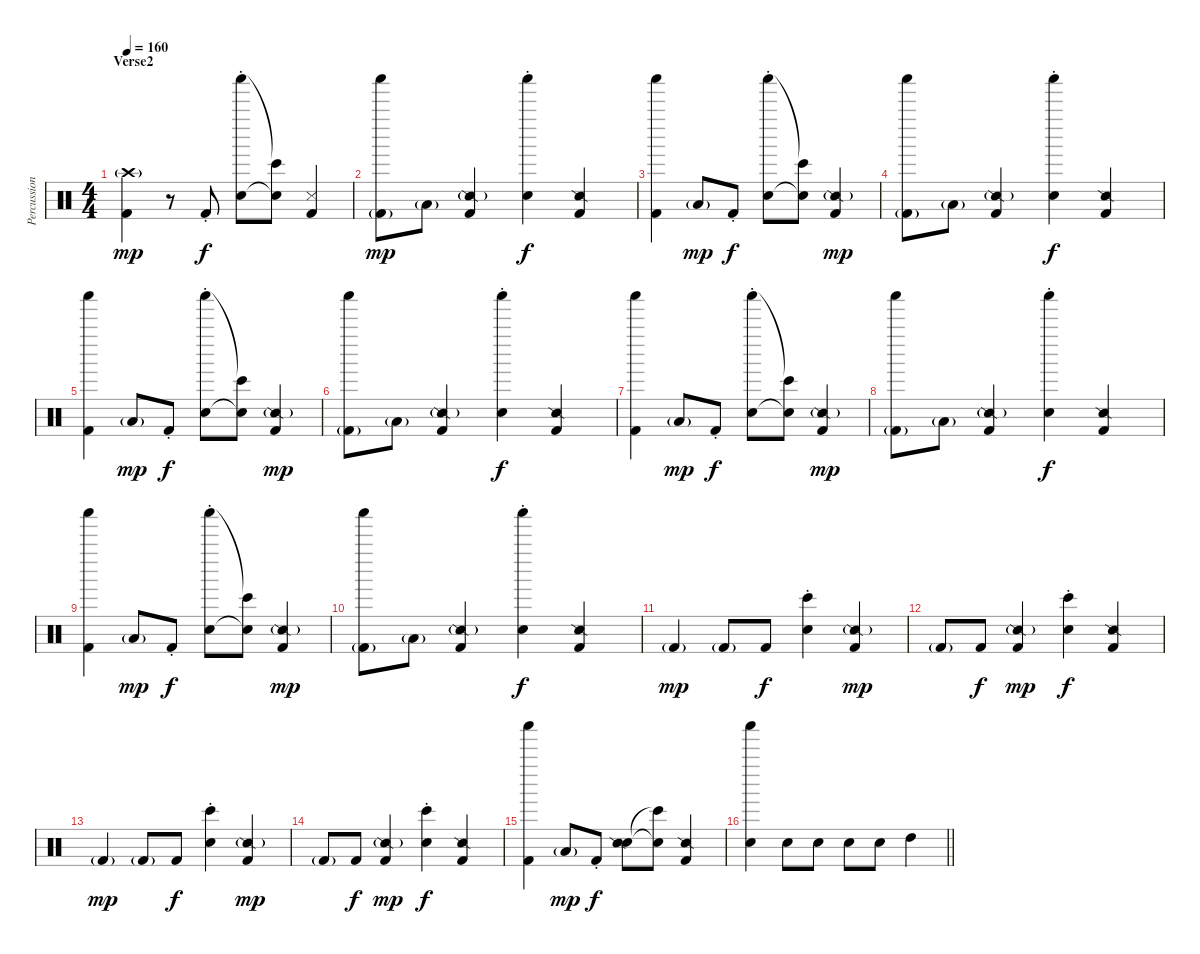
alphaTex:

\track ("Percussion" "Percussion") {instrument percussion}
\staff {score}
\articulation defaults
\ts (4 4)
\section ("" "Verse2")
\tempo 160
\clef neutral
\ks c
("Crash high (hit)"{g} "Kick (hit) 2").4{dy mp} r.8 "Kick (hit) 2"{st}.8{dy f} ("Electric Snare (hit)" "Shaker (hit)"{st}).8 ("Electric Snare (hit)"{t} "Bongo High (hit)"{t}).8 ("Kick (hit) 2" "Snare (side stick) 3").4 |
("Kick (hit) 2"{g} "Shaker (hit)").8{dy mp} "Low Tom (hit)"{g}.8 ("Kick (hit) 2" "Snare (side stick) 2"{g}).4 ("Electric Snare (hit)" "Shaker (hit)"{st}).4{dy f} ("Kick (hit) 2" "Snare (side stick) 2").4 |
("Kick (hit) 2" "Shaker (hit)").4 "Low Tom (hit)"{g}.8{dy mp} "Kick (hit) 2"{st}.8{dy f} ("Electric Snare (hit)" "Shaker (hit)"{st}).8 ("Electric Snare (hit)"{t} "Bongo High (hit)"{t}).8 ("Kick (hit) 2" "Snare (side stick) 2"{g}).4{dy mp} |
("Kick (hit) 2"{g} "Shaker (hit)").8 "Low Tom (hit)"{g}.8 ("Kick (hit) 2" "Snare (side stick) 2"{g}).4 ("Electric Snare (hit)" "Shaker (hit)"{st}).4{dy f} ("Kick (hit) 2" "Snare (side stick) 2").4 |
("Kick (hit) 2" "Shaker (hit)").4 "Low Tom (hit)"{g}.8{dy mp} "Kick (hit) 2"{st}.8{dy f} ("Electric Snare (hit)" "Shaker (hit)"{st}).8 ("Electric Snare (hit)"{t} "Bongo High (hit)"{t}).8 ("Kick (hit) 2" "Snare (side stick) 2"{g}).4{dy mp} |
("Kick (hit) 2"{g} "Shaker (hit)").8 "Low Tom (hit)"{g}.8 ("Kick (hit) 2" "Snare (side stick) 2"{g}).4 ("Electric Snare (hit)" "Shaker (hit)"{st}).4{dy f} ("Kick (hit) 2" "Snare (side stick) 2").4 |
("Kick (hit) 2" "Shaker (hit)").4 "Low Tom (hit)"{g}.8{dy mp} "Kick (hit) 2"{st}.8{dy f} ("Electric Snare (hit)" "Shaker (hit)"{st}).8 ("Electric Snare (hit)"{t} "Bongo High (hit)"{t}).8 ("Kick (hit) 2" "Snare (side stick) 2"{g}).4{dy mp} |
("Kick (hit) 2"{g} "Shaker (hit)").8 "Low Tom (hit)"{g}.8 ("Kick (hit) 2" "Snare (side stick) 2"{g}).4 ("Electric Snare (hit)" "Shaker (hit)"{st}).4{dy f} ("Kick (hit) 2" "Snare (side stick) 2").4 |
("Kick (hit) 2" "Shaker (hit)").4 "Low Tom (hit)"{g}.8{dy mp} "Kick (hit) 2"{st}.8{dy f} ("Electric Snare (hit)" "Shaker (hit)"{st}).8 ("Electric Snare (hit)"{t} "Bongo High (hit)"{t}).8 ("Kick (hit) 2" "Snare (side stick) 2"{g}).4{dy mp} |
("Kick (hit) 2"{g} "Shaker (hit)").8 "Low Tom (hit)"{g}.8 ("Kick (hit) 2" "Snare (side stick) 2"{g}).4 ("Electric Snare (hit)" "Shaker (hit)"{st}).4{dy f} ("Kick (hit) 2" "Snare (side stick) 2").4 |
"Kick (hit) 2"{g}.4{dy mp} "Kick (hit) 2"{g}.8 "Kick (hit) 2".8{dy f} ("Electric Snare (hit)" "Bongo High (hit)"{st}).4 ("Kick (hit) 2" "Snare (side stick) 2"{g}).4{dy mp} |
"Kick (hit) 2"{g}.8 "Kick (hit) 2".8{dy f} ("Kick (hit) 2" "Snare (side stick) 2"{g}).4{dy mp} ("Electric Snare (hit)" "Bongo High (hit)"{st}).4{dy f} ("Kick (hit) 2" "Snare (side stick) 2").4 |
"Kick (hit) 2"{g}.4{dy mp} "Kick (hit) 2"{g}.8 "Kick (hit) 2".8{dy f} ("Electric Snare (hit)" "Bongo High (hit)"{st}).4 ("Kick (hit) 2" "Snare (side stick) 2"{g}).4{dy mp} |
"Kick (hit) 2"{g}.8 "Kick (hit) 2".8{dy f} ("Kick (hit) 2" "Snare (side stick) 2"{g}).4{dy mp} ("Electric Snare (hit)" "Bongo High (hit)"{st}).4{dy f} ("Kick (hit) 2" "Snare (side stick) 2").4 |
("Kick (hit) 2" "Shaker (hit)").4 "Low Tom (hit)"{g}.8{dy mp} "Kick (hit) 2"{st}.8{dy f} ("Electric Snare (hit)" "Snare (side stick) 2").8 ("Electric Snare (hit)"{t} "Bongo High (hit)"{t}).8 ("Kick (hit) 2" "Snare (side stick) 2").4 |
\barLineRight lightlight
("Electric Snare (hit)" "Shaker (hit)").4 "Electric Snare (hit)".8 "Electric Snare (hit)".8 "Electric Snare (hit)".8 "Electric Snare (hit)".8 "High Tom (hit)".4
